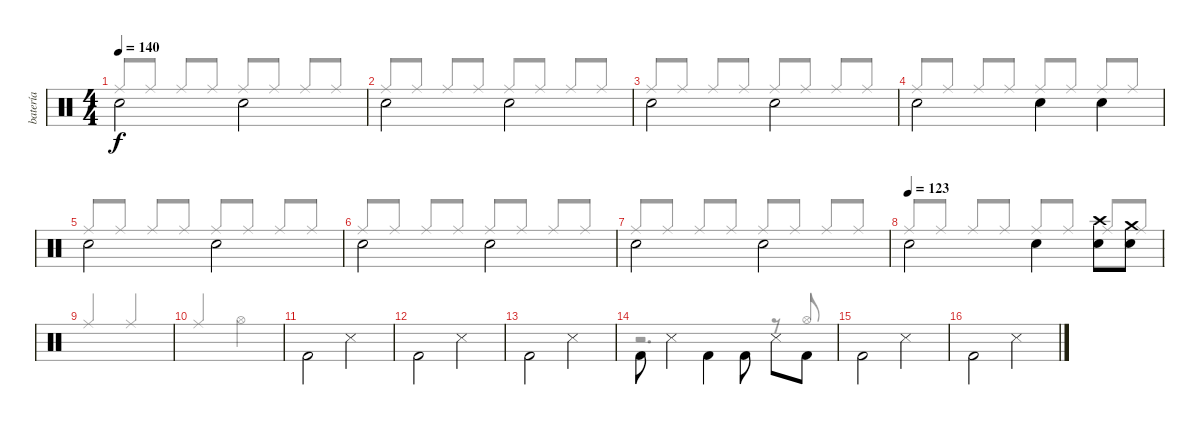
\track ("batería" "batería") {instrument percussion}
\staff {score}
\articulation defaults
\voice
\ts (4 4)
\tempo 140
\clef neutral
\ks c "Snare (hit) 2".2{dy f beam Down} "Snare (hit) 2".2{beam Down}
|
"Snare (hit) 2".2{beam Down} "Snare (hit) 2".2{beam Down} |
"Snare (hit) 2".2{beam Down} "Snare (hit) 2".2{beam Down} |
"Snare (hit) 2".2{beam Down} "Snare (hit) 2".4{beam Down} "Snare (hit) 2".4{beam Down} |
"Snare (hit) 2".2{beam Down} "Snare (hit) 2".2{beam Down} |
"Snare (hit) 2".2{beam Down} "Snare (hit) 2".2{beam Down} |
"Snare (hit) 2".2{beam Down} "Snare (hit) 2".2{beam Down} |
\tempo (123)
"Snare (hit) 2".2{beam Down} "Snare (hit) 2".4{beam Down} ("Snare (hit) 2" "Crash high (hit)").8{beam Down} ("Snare (hit) 2" "Crash medium (hit)").8{beam Down} |
|
|
"Kick (hit) 2".2{beam Down} "Snare (side stick) 3".2{beam Down} |
"Kick (hit) 2".2{beam Down} "Snare (side stick) 3".2{beam Down} |
"Kick (hit) 2".2{beam Down} "Snare (side stick) 3".2{beam Down} |
"Kick (hit) 2".8{beam Down} "Snare (side stick) 3".4{beam Down} "Kick (hit) 2".4{beam Down} "Kick (hit) 2".8{beam Down} "Snare (side stick) 3".8{beam Down} "Kick (hit) 2".8{beam Down} |
"Kick (hit) 2".2{beam Down} "Snare (side stick) 3".2{beam Down} |
"Kick (hit) 2".2{beam Down} "Snare (side stick) 3".2{beam Down}
\voice
\clef neutral
\ottava regular
\simile none
\ks c "Ride (middle)".8{dy f beam Up} "Ride (middle)".8{beam Up} "Ride (middle)".8{beam Up} "Ride (middle)".8{beam Up} "Ride (middle)".8{beam Up} "Ride (middle)".8{beam Up} "Ride (middle)".8{beam Up} "Ride (middle)".8{beam Up}
|
"Ride (middle)".8{beam Up} "Ride (middle)".8{beam Up} "Ride (middle)".8{beam Up} "Ride (middle)".8{beam Up} "Ride (middle)".8{beam Up} "Ride (middle)".8{beam Up} "Ride (middle)".8{beam Up} "Ride (middle)".8{beam Up} |
"Ride (middle)".8{beam Up} "Ride (middle)".8{beam Up} "Ride (middle)".8{beam Up} "Ride (middle)".8{beam Up} "Ride (middle)".8{beam Up} "Ride (middle)".8{beam Up} "Ride (middle)".8{beam Up} "Ride (middle)".8{beam Up} |
"Ride (middle)".8{beam Up} "Ride (middle)".8{beam Up} "Ride (middle)".8{beam Up} "Ride (middle)".8{beam Up} "Ride (middle)".8{beam Up} "Ride (middle)".8{beam Up} "Ride (middle)".8{beam Up} "Ride (middle)".8{beam Up} |
"Ride (middle)".8{beam Up} "Ride (middle)".8{beam Up} "Ride (middle)".8{beam Up} "Ride (middle)".8{beam Up} "Ride (middle)".8{beam Up} "Ride (middle)".8{beam Up} "Ride (middle)".8{beam Up} "Ride (middle)".8{beam Up} |
"Ride (middle)".8{beam Up} "Ride (middle)".8{beam Up} "Ride (middle)".8{beam Up} "Ride (middle)".8{beam Up} "Ride (middle)".8{beam Up} "Ride (middle)".8{beam Up} "Ride (middle)".8{beam Up} "Ride (middle)".8{beam Up} |
"Ride (middle)".8{beam Up} "Ride (middle)".8{beam Up} "Ride (middle)".8{beam Up} "Ride (middle)".8{beam Up} "Ride (middle)".8{beam Up} "Ride (middle)".8{beam Up} "Ride (middle)".8{beam Up} "Ride (middle)".8{beam Up} |
"Ride (middle)".8{beam Up} "Ride (middle)".8{beam Up} "Ride (middle)".8{beam Up} "Ride (middle)".8{beam Up} "Ride (middle)".8{beam Up} "Ride (middle)".8{beam Up} "Ride (middle)".8{beam Up} "Ride (middle)".8{beam Up} |
"Ride (middle)".2{beam Up} "Ride (middle)".2{beam Up} |
"Ride (middle)".2{beam Up} "Hi-Hat (open)".2 |
|
|
|
r.2{d} r.8 "Hi-Hat (open)".8{beam Up} |
|
